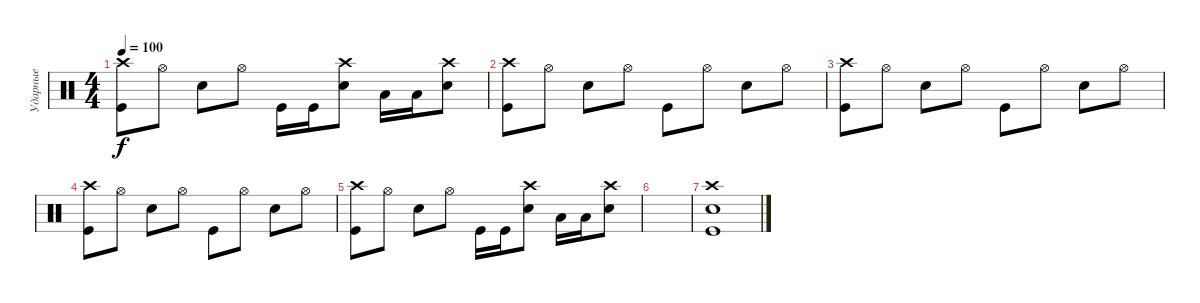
\track ("Ударные" "Ударные") {instrument percussion}
\staff {score}
\articulation defaults
\ts (4 4)
\tempo 100
\clef neutral
\ks c
("Crash high (hit)" "Kick (hit)").8{dy f} "Hi-Hat (open)".8 "Electric Snare (hit)".8 "Hi-Hat (open)".8 "Kick (hit)".16 "Kick (hit)".16 ("Crash high (hit)" "Electric Snare (hit)").8 "Low Tom (hit)".16 "Low Tom (hit)".16 ("Crash high (hit)" "Electric Snare (hit)").8 |
("Crash high (hit)" "Kick (hit)").8 "Hi-Hat (open)".8 "Electric Snare (hit)".8 "Hi-Hat (open)".8 "Kick (hit)".8 "Hi-Hat (open)".8 "Electric Snare (hit)".8 "Hi-Hat (open)".8 |
("Crash high (hit)" "Kick (hit)").8 "Hi-Hat (open)".8 "Electric Snare (hit)".8 "Hi-Hat (open)".8 "Kick (hit)".8 "Hi-Hat (open)".8 "Electric Snare (hit)".8 "Hi-Hat (open)".8 |
("Crash high (hit)" "Kick (hit)").8 "Hi-Hat (open)".8 "Electric Snare (hit)".8 "Hi-Hat (open)".8 "Kick (hit)".8 "Hi-Hat (open)".8 "Electric Snare (hit)".8 "Hi-Hat (open)".8 |
("Crash high (hit)" "Kick (hit)").8 "Hi-Hat (open)".8 "Electric Snare (hit)".8 "Hi-Hat (open)".8 "Kick (hit)".16 "Kick (hit)".16 ("Crash high (hit)" "Electric Snare (hit)").8 "Low Tom (hit)".16 "Low Tom (hit)".16 ("Crash high (hit)" "Electric Snare (hit)").8 |
|
("Crash high (hit)" "Electric Snare (hit)" "Kick (hit)").1
